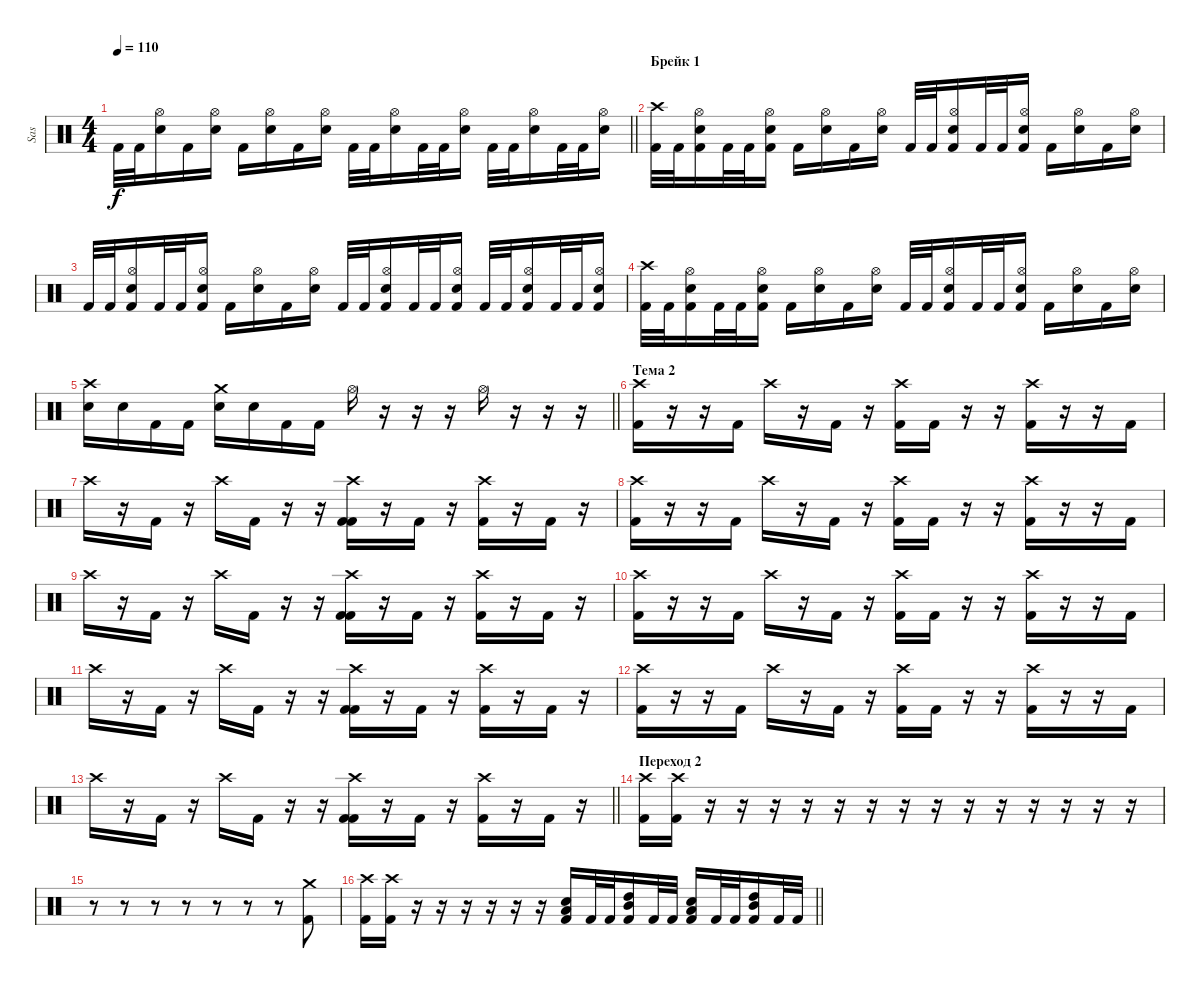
\track ("Sas" "Sas") {instrument percussion}
\staff {score}
\articulation defaults
\ts (4 4)
\tempo 110
\clef neutral
\barLineRight lightlight
\ks c "Kick (hit) 2".32{dy f} "Kick (hit) 2".32
("Hi-Hat (open)" "Snare (hit) 2").16 "Kick (hit) 2".16 ("Hi-Hat (open)" "Snare (hit) 2").16 "Kick (hit) 2".16 ("Hi-Hat (open)" "Snare (hit) 2").16 "Kick (hit) 2".16 ("Hi-Hat (open)" "Snare (hit) 2").16 "Kick (hit) 2".32 "Kick (hit) 2".32 ("Hi-Hat (open)" "Snare (hit) 2").16 "Kick (hit) 2".32 "Kick (hit) 2".32 ("Hi-Hat (open)" "Snare (hit) 2").16 "Kick (hit) 2".32 "Kick (hit) 2".32 ("Hi-Hat (open)" "Snare (hit) 2").16 "Kick (hit) 2".32 "Kick (hit) 2".32 ("Hi-Hat (open)" "Snare (hit) 2").16 |
\section ("" "Брейк 1")
("Crash high (hit)" "Kick (hit) 2").32 "Kick (hit) 2".32 ("Hi-Hat (open)" "Snare (hit) 2" "Kick (hit) 2").16 "Kick (hit) 2".32 "Kick (hit) 2".32 ("Hi-Hat (open)" "Snare (hit) 2" "Kick (hit) 2").16 "Kick (hit) 2".16 ("Hi-Hat (open)" "Snare (hit) 2").16 "Kick (hit) 2".16 ("Hi-Hat (open)" "Snare (hit) 2").16 "Kick (hit) 2".32 "Kick (hit) 2".32 ("Hi-Hat (open)" "Snare (hit) 2" "Kick (hit) 2").16 "Kick (hit) 2".32 "Kick (hit) 2".32 ("Hi-Hat (open)" "Snare (hit) 2" "Kick (hit) 2").16 "Kick (hit) 2".16 ("Hi-Hat (open)" "Snare (hit) 2").16 "Kick (hit) 2".16 ("Hi-Hat (open)" "Snare (hit) 2").16 |
"Kick (hit) 2".32 "Kick (hit) 2".32 ("Hi-Hat (open)" "Snare (hit) 2" "Kick (hit) 2").16 "Kick (hit) 2".32 "Kick (hit) 2".32 ("Hi-Hat (open)" "Snare (hit) 2" "Kick (hit) 2").16 "Kick (hit) 2".16 ("Hi-Hat (open)" "Snare (hit) 2").16 "Kick (hit) 2".16 ("Hi-Hat (open)" "Snare (hit) 2").16 "Kick (hit) 2".32 "Kick (hit) 2".32 ("Hi-Hat (open)" "Snare (hit) 2" "Kick (hit) 2").16 "Kick (hit) 2".32 "Kick (hit) 2".32 ("Hi-Hat (open)" "Snare (hit) 2" "Kick (hit) 2").16 "Kick (hit) 2".32 "Kick (hit) 2".32 ("Hi-Hat (open)" "Snare (hit) 2" "Kick (hit) 2").16 "Kick (hit) 2".32 "Kick (hit) 2".32 ("Hi-Hat (open)" "Snare (hit) 2" "Kick (hit) 2").16 |
("Crash high (hit)" "Kick (hit) 2").32 "Kick (hit) 2".32 ("Hi-Hat (open)" "Snare (hit) 2" "Kick (hit) 2").16 "Kick (hit) 2".32 "Kick (hit) 2".32 ("Hi-Hat (open)" "Snare (hit) 2" "Kick (hit) 2").16 "Kick (hit) 2".16 ("Hi-Hat (open)" "Snare (hit) 2").16 "Kick (hit) 2".16 ("Hi-Hat (open)" "Snare (hit) 2").16 "Kick (hit) 2".32 "Kick (hit) 2".32 ("Hi-Hat (open)" "Snare (hit) 2" "Kick (hit) 2").16 "Kick (hit) 2".32 "Kick (hit) 2".32 ("Hi-Hat (open)" "Snare (hit) 2" "Kick (hit) 2").16 "Kick (hit) 2".16 ("Hi-Hat (open)" "Snare (hit) 2").16 "Kick (hit) 2".16 ("Hi-Hat (open)" "Snare (hit) 2").16 |
\barLineRight lightlight
("Crash high (hit)" "Snare (hit) 2").16 "Snare (hit) 2".16 "Kick (hit) 2".16 "Kick (hit) 2".16 ("Crash medium (hit)" "Snare (hit) 2").16 "Snare (hit) 2".16 "Kick (hit) 2".16 "Kick (hit) 2".16 "Hi-Hat (open)".16 r.16 r.16 r.16 "Hi-Hat (open)".16 r.16 r.16 r.16 |
\section ("" "Тема 2")
("Crash high (hit)" "Kick (hit) 2").16 r.16 r.16 "Kick (hit) 2".16 "Crash high (hit)".16 r.16 "Kick (hit) 2".16 r.16 ("Crash high (hit)" "Kick (hit) 2").16 "Kick (hit) 2".16 r.16 r.16 ("Crash high (hit)" "Kick (hit) 2").16 r.16 r.16 "Kick (hit) 2".16 |
"Crash high (hit)".16 r.16 "Kick (hit) 2".16 r.16 "Crash high (hit)".16 "Kick (hit) 2".16 r.16 r.16 ("Crash high (hit)" "Kick (hit) 2" "Kick (hit) 2").16 r.16 "Kick (hit) 2".16 r.16 ("Crash high (hit)" "Kick (hit) 2").16 r.16 "Kick (hit) 2".16 r.16 |
("Crash high (hit)" "Kick (hit) 2").16 r.16 r.16 "Kick (hit) 2".16 "Crash high (hit)".16 r.16 "Kick (hit) 2".16 r.16 ("Crash high (hit)" "Kick (hit) 2").16 "Kick (hit) 2".16 r.16 r.16 ("Crash high (hit)" "Kick (hit) 2").16 r.16 r.16 "Kick (hit) 2".16 |
"Crash high (hit)".16 r.16 "Kick (hit) 2".16 r.16 "Crash high (hit)".16 "Kick (hit) 2".16 r.16 r.16 ("Crash high (hit)" "Kick (hit) 2" "Kick (hit) 2").16 r.16 "Kick (hit) 2".16 r.16 ("Crash high (hit)" "Kick (hit) 2").16 r.16 "Kick (hit) 2".16 r.16 |
("Crash high (hit)" "Kick (hit) 2").16 r.16 r.16 "Kick (hit) 2".16 "Crash high (hit)".16 r.16 "Kick (hit) 2".16 r.16 ("Crash high (hit)" "Kick (hit) 2").16 "Kick (hit) 2".16 r.16 r.16 ("Crash high (hit)" "Kick (hit) 2").16 r.16 r.16 "Kick (hit) 2".16 |
"Crash high (hit)".16 r.16 "Kick (hit) 2".16 r.16 "Crash high (hit)".16 "Kick (hit) 2".16 r.16 r.16 ("Crash high (hit)" "Kick (hit) 2" "Kick (hit) 2").16 r.16 "Kick (hit) 2".16 r.16 ("Crash high (hit)" "Kick (hit) 2").16 r.16 "Kick (hit) 2".16 r.16 |
("Crash high (hit)" "Kick (hit) 2").16 r.16 r.16 "Kick (hit) 2".16 "Crash high (hit)".16 r.16 "Kick (hit) 2".16 r.16 ("Crash high (hit)" "Kick (hit) 2").16 "Kick (hit) 2".16 r.16 r.16 ("Crash high (hit)" "Kick (hit) 2").16 r.16 r.16 "Kick (hit) 2".16 |
\barLineRight lightlight "Crash high (hit)".16
r.16 "Kick (hit) 2".16 r.16 "Crash high (hit)".16 "Kick (hit) 2".16 r.16 r.16 ("Crash high (hit)" "Kick (hit) 2" "Kick (hit) 2").16 r.16 "Kick (hit) 2".16 r.16 ("Crash high (hit)" "Kick (hit) 2").16 r.16 "Kick (hit) 2".16 r.16 |
\section ("" "Переход 2")
("Crash high (hit)" "Kick (hit) 2").16 ("Crash high (hit)" "Kick (hit) 2").16 r.16 r.16 r.16 r.16 r.16 r.16 r.16 r.16 r.16 r.16 r.16 r.16 r.16 r.16 |
r.8 r.8 r.8 r.8 r.8 r.8 r.8 ("Crash medium (hit)" "Kick (hit) 2").8 |
\barLineRight lightlight
("Crash high (hit)" "Kick (hit) 2").16 ("Crash high (hit)" "Kick (hit) 2").16 r.16 r.16 r.16 r.16 r.16 r.16 ("Low Floor Tom (hit)" "Electric Snare (hit)" "Kick (hit) 2").16 "Kick (hit) 2".32 "Kick (hit) 2".32 ("High Tom (hit)" "Mid Tom (hit)" "Kick (hit) 2").16 "Kick (hit) 2".32 "Kick (hit) 2".32 ("Low Floor Tom (hit)" "Electric Snare (hit)" "Kick (hit) 2").16 "Kick (hit) 2".32 "Kick (hit) 2".32 ("High Tom (hit)" "Mid Tom (hit)" "Kick (hit) 2").16 "Kick (hit) 2".32 "Kick (hit) 2".32
